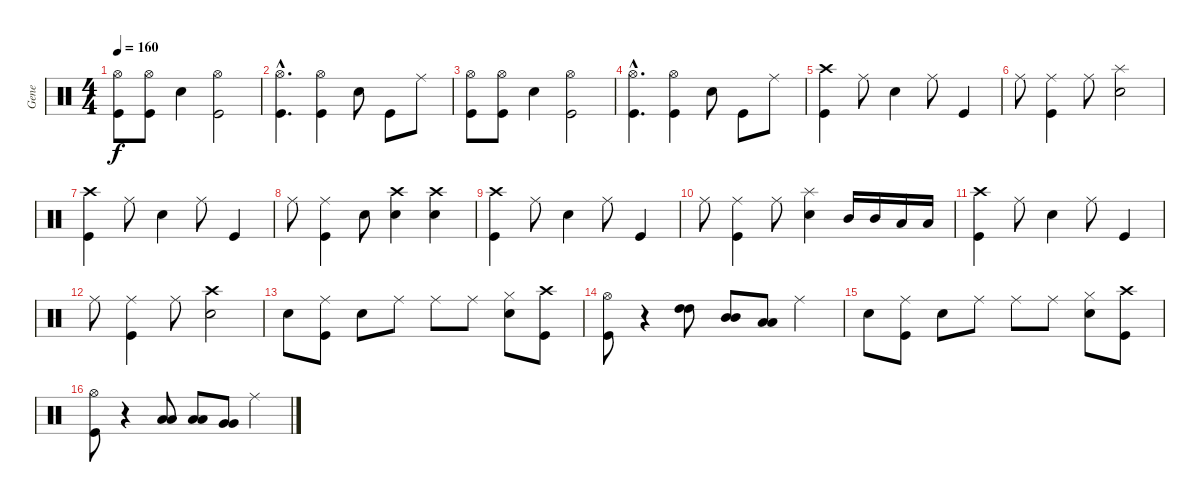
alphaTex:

\track ("Gene" "Gene") {instrument percussion}
\staff {score}
\articulation defaults
\ts (4 4)
\tempo 160
\clef neutral
\ks c
("Kick (hit)" "Hi-Hat (open)").8{dy f} ("Kick (hit)" "Hi-Hat (open)").8 "Snare (hit) 2".4 ("Kick (hit)" "Hi-Hat (open)").2 |
("Kick (hit)"{hac} "Hi-Hat (open)"{hac}).4{d} ("Kick (hit)" "Hi-Hat (open)").4 "Snare (hit) 2".8 "Kick (hit)".8 "Ride (middle)".8 |
("Kick (hit)" "Hi-Hat (open)").8 ("Kick (hit)" "Hi-Hat (open)").8 "Snare (hit) 2".4 ("Kick (hit)" "Hi-Hat (open)").2 |
("Kick (hit)"{hac} "Hi-Hat (open)"{hac}).4{d} ("Kick (hit)" "Hi-Hat (open)").4 "Snare (hit) 2".8 "Kick (hit)".8 "Ride (middle)".8 |
("Kick (hit)" "Crash high (hit)").4 "Ride (middle)".8 "Snare (hit) 2".4 "Ride (middle)".8 "Kick (hit)".4 |
"Ride (middle)".8 ("Kick (hit)" "Ride (middle)").4 "Ride (middle)".8 ("Snare (hit) 2" "Splash (hit)").2 |
("Kick (hit)" "Crash high (hit)").4 "Ride (middle)".8 "Snare (hit) 2".4 "Ride (middle)".8 "Kick (hit)".4 |
"Ride (middle)".8 ("Kick (hit)" "Ride (middle)").4 "Snare (hit) 2".8 ("Snare (hit) 2" "Crash high (hit)").4 ("Snare (hit) 2" "Crash high (hit)").4 |
("Kick (hit)" "Crash high (hit)").4 "Ride (middle)".8 "Snare (hit) 2".4 "Ride (middle)".8 "Kick (hit)".4 |
"Ride (middle)".8 ("Kick (hit)" "Ride (middle)").4 "Ride (middle)".8 ("Snare (hit) 2" "Splash (hit)").4 "Mid Tom (hit)".16 "Mid Tom (hit)".16 "Low Tom (hit)".16 "Low Tom (hit)".16 |
("Kick (hit)" "Crash high (hit)").4 "Ride (middle)".8 "Snare (hit) 2".4 "Ride (middle)".8 "Kick (hit)".4 |
"Ride (middle)".8 ("Kick (hit)" "Ride (middle)").4 "Ride (middle)".8 ("Snare (hit) 2" "Crash high (hit)").2 |
"Snare (hit) 2".8 ("Kick (hit)" "Ride (middle)").8 "Snare (hit) 2".8 "Ride (middle)".8 "Ride (middle)".8 "Ride (middle)".8 ("Snare (hit) 2" "Hi-Hat (closed)").8 ("Kick (hit)" "Crash high (hit)").8 |
("Kick (hit)" "Hi-Hat (open)").8 r.4 ("High Tom (hit)" "High Tom (hit)").8 ("Mid Tom (hit)" "Mid Tom (hit)").8 ("Low Tom (hit)" "Low Tom (hit)").8 "Ride (middle)".4 |
"Snare (hit) 2".8 ("Kick (hit)" "Ride (middle)").8 "Snare (hit) 2".8 "Ride (middle)".8 "Ride (middle)".8 "Ride (middle)".8 ("Snare (hit) 2" "Hi-Hat (closed)").8 ("Kick (hit)" "Crash high (hit)").8 |
("Kick (hit)" "Hi-Hat (open)").8 r.4 ("Low Tom (hit)" "Low Tom (hit)").8 ("Low Floor Tom (hit)" "Low Floor Tom (hit)").8 ("Very Low Tom (hit)" "Very Low Tom (hit)").8 "Ride (middle)".4
